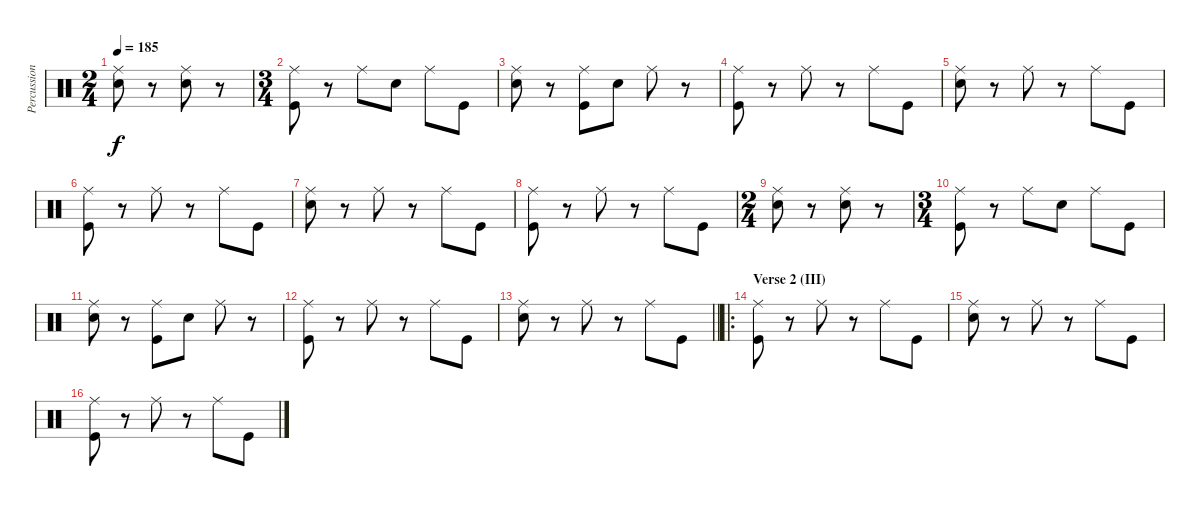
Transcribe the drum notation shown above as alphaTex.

\track ("Percussion" "Percussion") {instrument percussion}
\staff {score}
\articulation defaults
\ts (2 4)
\tempo 185
\clef neutral
\ks c
("Ride (middle)" "Snare (hit) 2").8{dy f} r.8 ("Ride (middle)" "Snare (hit) 2").8 r.8 |
\ts (3 4)
("Ride (middle)" "Kick (hit)").8 r.8 "Ride (middle)".8 "Snare (hit) 2".8 "Ride (middle)".8 "Kick (hit)".8 |
("Ride (middle)" "Snare (hit) 2").8 r.8 ("Ride (middle)" "Kick (hit)").8 "Snare (hit) 2".8 "Ride (middle)".8 r.8 |
("Ride (middle)" "Kick (hit)").8 r.8 "Ride (middle)".8 r.8 "Ride (middle)".8 "Kick (hit)".8 |
("Ride (middle)" "Snare (hit) 2").8 r.8 "Ride (middle)".8 r.8 "Ride (middle)".8 "Kick (hit)".8 |
("Ride (middle)" "Kick (hit)").8 r.8 "Ride (middle)".8 r.8 "Ride (middle)".8 "Kick (hit)".8 |
("Ride (middle)" "Snare (hit) 2").8 r.8 "Ride (middle)".8 r.8 "Ride (middle)".8 "Kick (hit)".8 |
("Ride (middle)" "Kick (hit)").8 r.8 "Ride (middle)".8 r.8 "Ride (middle)".8 "Kick (hit)".8 |
\ts (2 4)
("Ride (middle)" "Snare (hit) 2").8 r.8 ("Ride (middle)" "Snare (hit) 2").8 r.8 |
\ts (3 4)
("Ride (middle)" "Kick (hit)").8 r.8 "Ride (middle)".8 "Snare (hit) 2".8 "Ride (middle)".8 "Kick (hit)".8 |
("Ride (middle)" "Snare (hit) 2").8 r.8 ("Ride (middle)" "Kick (hit)").8 "Snare (hit) 2".8 "Ride (middle)".8 r.8 |
("Ride (middle)" "Kick (hit)").8 r.8 "Ride (middle)".8 r.8 "Ride (middle)".8 "Kick (hit)".8 |
\barLineRight lightlight
("Ride (middle)" "Snare (hit) 2").8 r.8 "Ride (middle)".8 r.8 "Ride (middle)".8 "Kick (hit)".8 |
\ro
\section ("" "Verse 2 (III)")
("Ride (middle)" "Kick (hit)").8 r.8 "Ride (middle)".8 r.8 "Ride (middle)".8 "Kick (hit)".8 |
("Ride (middle)" "Snare (hit) 2").8 r.8 "Ride (middle)".8 r.8 "Ride (middle)".8 "Kick (hit)".8 |
("Ride (middle)" "Kick (hit)").8 r.8 "Ride (middle)".8 r.8 "Ride (middle)".8 "Kick (hit)".8
